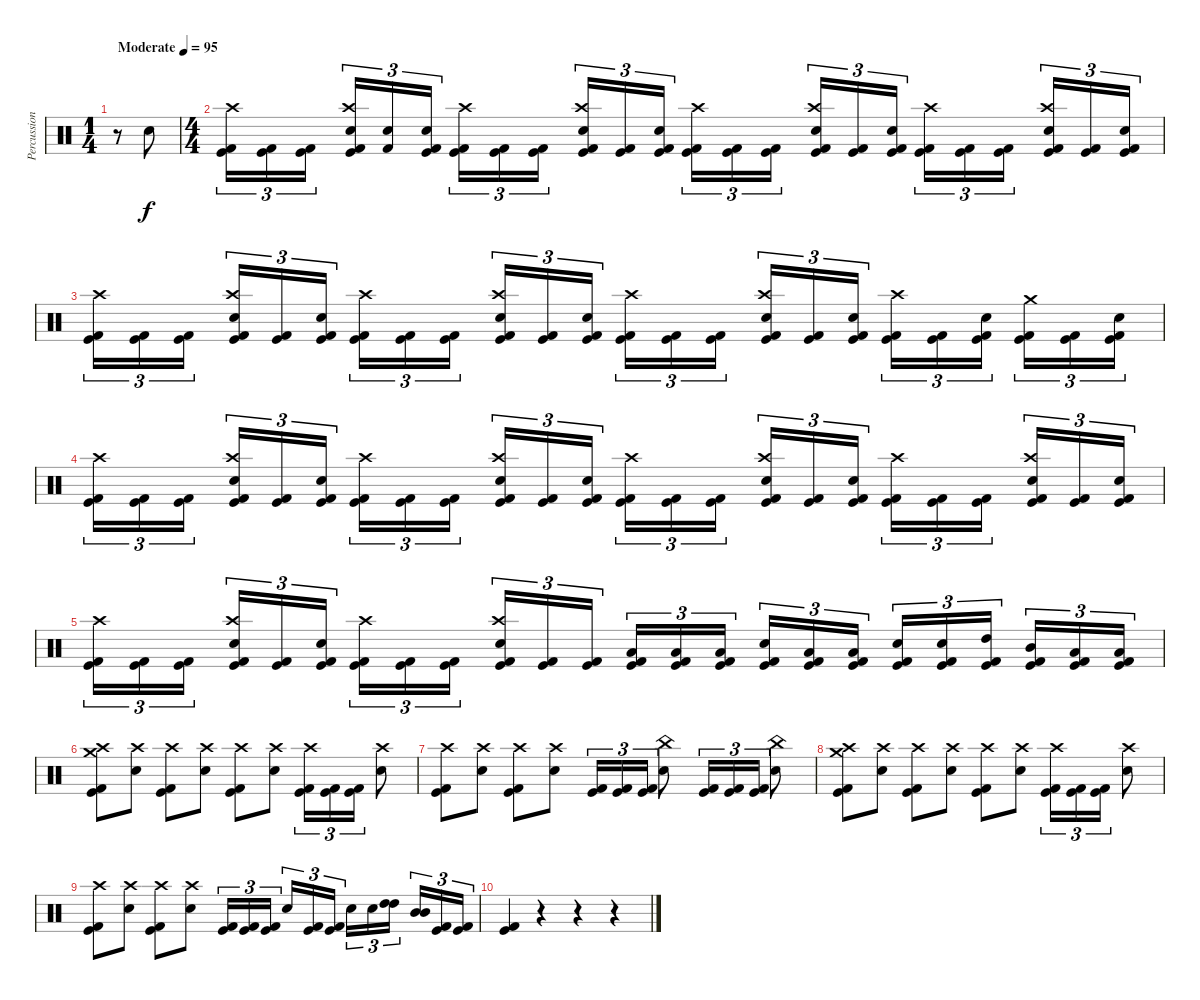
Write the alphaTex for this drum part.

\track ("Percussion" "Percussion") {instrument percussion}
\staff {score}
\articulation defaults
\ts (1 4)
\tempo (95 "Moderate")
\clef neutral
\ks c
r.8{dy f} "Electric Snare (hit)".8 |
\ts (4 4)
("Crash high (hit)" "Kick (hit)" "Kick (hit) 2").16{tu (3 2)} ("Kick (hit)" "Kick (hit) 2").16{tu (3 2)} ("Kick (hit)" "Kick (hit) 2").16{tu (3 2) beam splitsecondary} ("Crash high (hit)" "Electric Snare (hit)" "Kick (hit)" "Kick (hit) 2").16{tu (3 2)} ("Snare (hit)" "Kick (hit) 2").16{tu (3 2)} ("Electric Snare (hit)" "Kick (hit)" "Kick (hit) 2").16{tu (3 2)} ("Crash high (hit)" "Kick (hit)" "Kick (hit) 2").16{tu (3 2)} ("Kick (hit)" "Kick (hit) 2").16{tu (3 2)} ("Kick (hit)" "Kick (hit) 2").16{tu (3 2) beam splitsecondary} ("Crash high (hit)" "Electric Snare (hit)" "Kick (hit)" "Kick (hit) 2").16{tu (3 2)} ("Kick (hit)" "Kick (hit) 2").16{tu (3 2)} ("Electric Snare (hit)" "Kick (hit)" "Kick (hit) 2").16{tu (3 2)} ("Crash high (hit)" "Kick (hit)" "Kick (hit) 2").16{tu (3 2)} ("Kick (hit)" "Kick (hit) 2").16{tu (3 2)} ("Kick (hit)" "Kick (hit) 2").16{tu (3 2) beam splitsecondary} ("Crash high (hit)" "Electric Snare (hit)" "Kick (hit)" "Kick (hit) 2").16{tu (3 2)} ("Kick (hit)" "Kick (hit) 2").16{tu (3 2)} ("Electric Snare (hit)" "Kick (hit)" "Kick (hit) 2").16{tu (3 2)} ("Crash high (hit)" "Kick (hit)" "Kick (hit) 2").16{tu (3 2)} ("Kick (hit)" "Kick (hit) 2").16{tu (3 2)} ("Kick (hit)" "Kick (hit) 2").16{tu (3 2) beam splitsecondary} ("Crash high (hit)" "Electric Snare (hit)" "Kick (hit)" "Kick (hit) 2").16{tu (3 2)} ("Kick (hit)" "Kick (hit) 2").16{tu (3 2)} ("Electric Snare (hit)" "Kick (hit)" "Kick (hit) 2").16{tu (3 2)} |
("Crash high (hit)" "Kick (hit)" "Kick (hit) 2").16{tu (3 2)} ("Kick (hit)" "Kick (hit) 2").16{tu (3 2)} ("Kick (hit)" "Kick (hit) 2").16{tu (3 2) beam splitsecondary} ("Crash high (hit)" "Electric Snare (hit)" "Kick (hit)" "Kick (hit) 2").16{tu (3 2)} ("Kick (hit)" "Kick (hit) 2").16{tu (3 2)} ("Electric Snare (hit)" "Kick (hit)" "Kick (hit) 2").16{tu (3 2)} ("Crash high (hit)" "Kick (hit)" "Kick (hit) 2").16{tu (3 2)} ("Kick (hit)" "Kick (hit) 2").16{tu (3 2)} ("Kick (hit)" "Kick (hit) 2").16{tu (3 2) beam splitsecondary} ("Crash high (hit)" "Electric Snare (hit)" "Kick (hit)" "Kick (hit) 2").16{tu (3 2)} ("Kick (hit)" "Kick (hit) 2").16{tu (3 2)} ("Electric Snare (hit)" "Kick (hit)" "Kick (hit) 2").16{tu (3 2)} ("Crash high (hit)" "Kick (hit)" "Kick (hit) 2").16{tu (3 2)} ("Kick (hit)" "Kick (hit) 2").16{tu (3 2)} ("Kick (hit)" "Kick (hit) 2").16{tu (3 2) beam splitsecondary} ("Crash high (hit)" "Electric Snare (hit)" "Kick (hit)" "Kick (hit) 2").16{tu (3 2)} ("Kick (hit)" "Kick (hit) 2").16{tu (3 2)} ("Electric Snare (hit)" "Kick (hit)" "Kick (hit) 2").16{tu (3 2)} ("Crash high (hit)" "Kick (hit)" "Kick (hit) 2").16{tu (3 2)} ("Kick (hit)" "Kick (hit) 2").16{tu (3 2)} ("Electric Snare (hit)" "Kick (hit)" "Kick (hit) 2").16{tu (3 2) beam splitsecondary} ("Crash medium (hit)" "Kick (hit)" "Kick (hit) 2").16{tu (3 2)} ("Kick (hit)" "Kick (hit) 2").16{tu (3 2)} ("Electric Snare (hit)" "Kick (hit)" "Kick (hit) 2").16{tu (3 2)} |
("Crash high (hit)" "Kick (hit)" "Kick (hit) 2").16{tu (3 2)} ("Kick (hit)" "Kick (hit) 2").16{tu (3 2)} ("Kick (hit)" "Kick (hit) 2").16{tu (3 2) beam splitsecondary} ("Crash high (hit)" "Electric Snare (hit)" "Kick (hit)" "Kick (hit) 2").16{tu (3 2)} ("Kick (hit)" "Kick (hit) 2").16{tu (3 2)} ("Electric Snare (hit)" "Kick (hit)" "Kick (hit) 2").16{tu (3 2)} ("Crash high (hit)" "Kick (hit)" "Kick (hit) 2").16{tu (3 2)} ("Kick (hit)" "Kick (hit) 2").16{tu (3 2)} ("Kick (hit)" "Kick (hit) 2").16{tu (3 2) beam splitsecondary} ("Crash high (hit)" "Electric Snare (hit)" "Kick (hit)" "Kick (hit) 2").16{tu (3 2)} ("Kick (hit)" "Kick (hit) 2").16{tu (3 2)} ("Electric Snare (hit)" "Kick (hit)" "Kick (hit) 2").16{tu (3 2)} ("Crash high (hit)" "Kick (hit)" "Kick (hit) 2").16{tu (3 2)} ("Kick (hit)" "Kick (hit) 2").16{tu (3 2)} ("Kick (hit)" "Kick (hit) 2").16{tu (3 2) beam splitsecondary} ("Crash high (hit)" "Electric Snare (hit)" "Kick (hit)" "Kick (hit) 2").16{tu (3 2)} ("Kick (hit)" "Kick (hit) 2").16{tu (3 2)} ("Electric Snare (hit)" "Kick (hit)" "Kick (hit) 2").16{tu (3 2)} ("Crash high (hit)" "Kick (hit)" "Kick (hit) 2").16{tu (3 2)} ("Kick (hit)" "Kick (hit) 2").16{tu (3 2)} ("Kick (hit)" "Kick (hit) 2").16{tu (3 2) beam splitsecondary} ("Crash high (hit)" "Electric Snare (hit)" "Kick (hit)" "Kick (hit) 2").16{tu (3 2)} ("Kick (hit)" "Kick (hit) 2").16{tu (3 2)} ("Electric Snare (hit)" "Kick (hit)" "Kick (hit) 2").16{tu (3 2)} |
("Crash high (hit)" "Kick (hit)" "Kick (hit) 2").16{tu (3 2)} ("Kick (hit)" "Kick (hit) 2").16{tu (3 2)} ("Kick (hit)" "Kick (hit) 2").16{tu (3 2) beam splitsecondary} ("Crash high (hit)" "Electric Snare (hit)" "Kick (hit)" "Kick (hit) 2").16{tu (3 2)} ("Kick (hit)" "Kick (hit) 2").16{tu (3 2)} ("Electric Snare (hit)" "Kick (hit)" "Kick (hit) 2").16{tu (3 2)} ("Crash high (hit)" "Kick (hit)" "Kick (hit) 2").16{tu (3 2)} ("Kick (hit)" "Kick (hit) 2").16{tu (3 2)} ("Kick (hit)" "Kick (hit) 2").16{tu (3 2) beam splitsecondary} ("Crash high (hit)" "Electric Snare (hit)" "Kick (hit)" "Kick (hit) 2").16{tu (3 2)} ("Kick (hit)" "Kick (hit) 2").16{tu (3 2)} ("Kick (hit)" "Kick (hit) 2").16{tu (3 2)} ("Low Tom (hit)" "Kick (hit)" "Kick (hit) 2").16{tu (3 2)} ("Low Tom (hit)" "Kick (hit)" "Kick (hit) 2").16{tu (3 2)} ("Low Tom (hit)" "Kick (hit)" "Kick (hit) 2").16{tu (3 2) beam splitsecondary} ("Electric Snare (hit)" "Kick (hit)" "Kick (hit) 2").16{tu (3 2)} ("Low Tom (hit)" "Kick (hit)" "Kick (hit) 2").16{tu (3 2)} ("Low Tom (hit)" "Kick (hit)" "Kick (hit) 2").16{tu (3 2)} ("Electric Snare (hit)" "Kick (hit)" "Kick (hit) 2").16{tu (3 2)} ("Electric Snare (hit)" "Kick (hit)" "Kick (hit) 2").16{tu (3 2)} ("High Tom (hit)" "Kick (hit)" "Kick (hit) 2").16{tu (3 2) beam splitsecondary} ("Mid Tom (hit)" "Kick (hit)" "Kick (hit) 2").16{tu (3 2)} ("Low Tom (hit)" "Kick (hit)" "Kick (hit) 2").16{tu (3 2)} ("Low Tom (hit)" "Kick (hit)" "Kick (hit) 2").16{tu (3 2)} |
("Crash high (hit)" "Crash medium (hit)" "Kick (hit)" "Kick (hit) 2").8 ("Crash high (hit)" "Electric Snare (hit)").8 ("Crash high (hit)" "Kick (hit)" "Kick (hit) 2").8 ("Crash high (hit)" "Electric Snare (hit)").8 ("Crash high (hit)" "Kick (hit)" "Kick (hit) 2").8 ("Crash high (hit)" "Electric Snare (hit)").8 ("Crash high (hit)" "Kick (hit)" "Kick (hit) 2").16{tu (3 2)} ("Kick (hit)" "Kick (hit) 2").16{tu (3 2)} ("Kick (hit)" "Kick (hit) 2").16{tu (3 2)} ("Crash high (hit)" "Electric Snare (hit)").8 |
("Crash high (hit)" "Kick (hit)" "Kick (hit) 2").8 ("Crash high (hit)" "Electric Snare (hit)").8 ("Crash high (hit)" "Kick (hit)" "Kick (hit) 2").8 ("Crash high (hit)" "Electric Snare (hit)").8 ("Kick (hit)" "Kick (hit) 2").16{tu (3 2)} ("Kick (hit)" "Kick (hit) 2").16{tu (3 2)} ("Kick (hit)" "Kick (hit) 2").16{tu (3 2)} ("China (hit)" "Electric Snare (hit)").8 ("Kick (hit)" "Kick (hit) 2").16{tu (3 2)} ("Kick (hit)" "Kick (hit) 2").16{tu (3 2)} ("Kick (hit)" "Kick (hit) 2").16{tu (3 2)} ("China (hit)" "Electric Snare (hit)").8 |
("Crash high (hit)" "Crash medium (hit)" "Kick (hit)" "Kick (hit) 2").8 ("Crash high (hit)" "Electric Snare (hit)").8 ("Crash high (hit)" "Kick (hit)" "Kick (hit) 2").8 ("Crash high (hit)" "Electric Snare (hit)").8 ("Crash high (hit)" "Kick (hit)" "Kick (hit) 2").8 ("Crash high (hit)" "Electric Snare (hit)").8 ("Crash high (hit)" "Kick (hit)" "Kick (hit) 2").16{tu (3 2)} ("Kick (hit)" "Kick (hit) 2").16{tu (3 2)} ("Kick (hit)" "Kick (hit) 2").16{tu (3 2)} ("Crash high (hit)" "Electric Snare (hit)").8 |
("Crash high (hit)" "Kick (hit)" "Kick (hit) 2").8 ("Crash high (hit)" "Electric Snare (hit)").8 ("Crash high (hit)" "Kick (hit)" "Kick (hit) 2").8 ("Crash high (hit)" "Electric Snare (hit)").8 ("Kick (hit)" "Kick (hit) 2").16{tu (3 2)} ("Kick (hit)" "Kick (hit) 2").16{tu (3 2)} ("Kick (hit)" "Kick (hit) 2").16{tu (3 2) beam splitsecondary} "Electric Snare (hit)".16{tu (3 2)} ("Kick (hit)" "Kick (hit) 2").16{tu (3 2)} ("Kick (hit)" "Kick (hit) 2").16{tu (3 2)} "Electric Snare (hit)".16{tu (3 2)} "Electric Snare (hit)".16{tu (3 2)} ("High Tom (hit)" "High Tom (hit)").16{tu (3 2) beam splitsecondary} ("Mid Tom (hit)" "Mid Tom (hit)").16{tu (3 2)} ("Kick (hit)" "Kick (hit) 2").16{tu (3 2)} ("Kick (hit)" "Kick (hit) 2").16{tu (3 2)} |
("Kick (hit)" "Kick (hit) 2").4 r.4 r.4 r.4
